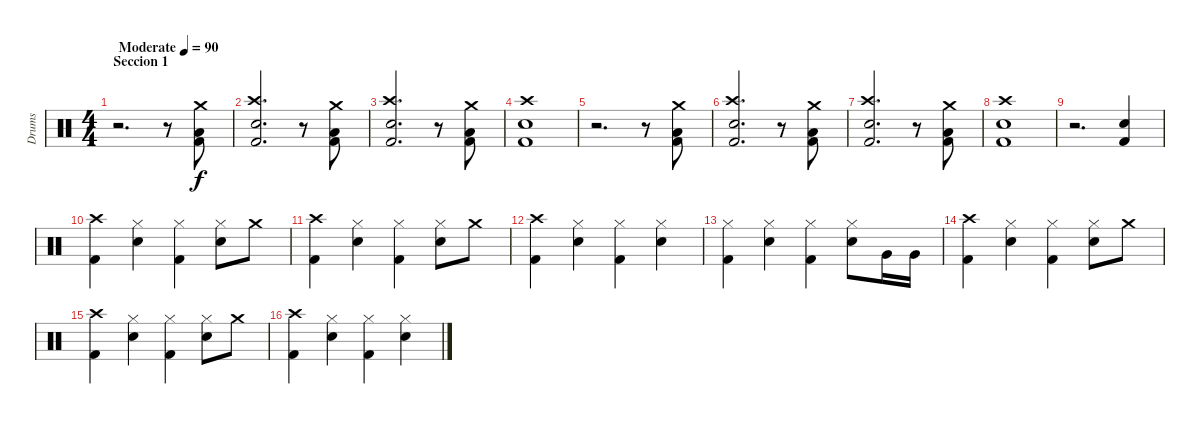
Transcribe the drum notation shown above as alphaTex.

\track ("Drums" "Drums") {instrument percussion}
\staff {score}
\articulation defaults
\ts (4 4)
\section ("" "Seccion 1")
\tempo (90 "Moderate")
\clef neutral
\ks c
r.2{d dy f} r.8 ("Crash medium (hit)" "Low Tom (hit)" "Kick (hit) 2").8 |
("Crash high (hit)" "Snare (hit) 2" "Kick (hit) 2").2{d} r.8 ("Crash medium (hit)" "Low Tom (hit)" "Kick (hit) 2").8 |
("Crash high (hit)" "Snare (hit) 2" "Kick (hit) 2").2{d} r.8 ("Crash medium (hit)" "Low Tom (hit)" "Kick (hit) 2").8 |
("Crash high (hit)" "Snare (hit) 2" "Kick (hit) 2").1 |
r.2{d} r.8 ("Crash medium (hit)" "Low Tom (hit)" "Kick (hit) 2").8 |
("Crash high (hit)" "Snare (hit) 2" "Kick (hit) 2").2{d} r.8 ("Crash medium (hit)" "Low Tom (hit)" "Kick (hit) 2").8 |
("Crash high (hit)" "Snare (hit) 2" "Kick (hit) 2").2{d} r.8 ("Crash medium (hit)" "Low Tom (hit)" "Kick (hit) 2").8 |
("Crash high (hit)" "Snare (hit) 2" "Kick (hit) 2").1 |
r.2{d} ("Snare (hit) 2" "Kick (hit) 2").4 |
("Crash high (hit)" "Kick (hit) 2").4 ("Hi-Hat (closed)" "Snare (hit) 2").4 ("Hi-Hat (closed)" "Kick (hit) 2").4 ("Hi-Hat (closed)" "Snare (hit) 2").8 "Crash medium (hit)".8 |
("Crash high (hit)" "Kick (hit) 2").4 ("Hi-Hat (closed)" "Snare (hit) 2").4 ("Hi-Hat (closed)" "Kick (hit) 2").4 ("Hi-Hat (closed)" "Snare (hit) 2").8 "Crash medium (hit)".8 |
("Crash high (hit)" "Kick (hit) 2").4 ("Hi-Hat (closed)" "Snare (hit) 2").4 ("Hi-Hat (closed)" "Kick (hit) 2").4 ("Hi-Hat (closed)" "Snare (hit) 2").4 |
("Hi-Hat (closed)" "Kick (hit) 2").4 ("Hi-Hat (closed)" "Snare (hit) 2").4 ("Hi-Hat (closed)" "Kick (hit) 2").4 ("Hi-Hat (closed)" "Snare (hit) 2").8 "Very Low Tom (hit)".16 "Very Low Tom (hit)".16 |
("Crash high (hit)" "Kick (hit) 2").4 ("Hi-Hat (closed)" "Snare (hit) 2").4 ("Hi-Hat (closed)" "Kick (hit) 2").4 ("Hi-Hat (closed)" "Snare (hit) 2").8 "Crash medium (hit)".8 |
("Crash high (hit)" "Kick (hit) 2").4 ("Hi-Hat (closed)" "Snare (hit) 2").4 ("Hi-Hat (closed)" "Kick (hit) 2").4 ("Hi-Hat (closed)" "Snare (hit) 2").8 "Crash medium (hit)".8 |
("Crash high (hit)" "Kick (hit) 2").4 ("Hi-Hat (closed)" "Snare (hit) 2").4 ("Hi-Hat (closed)" "Kick (hit) 2").4 ("Hi-Hat (closed)" "Snare (hit) 2").4
